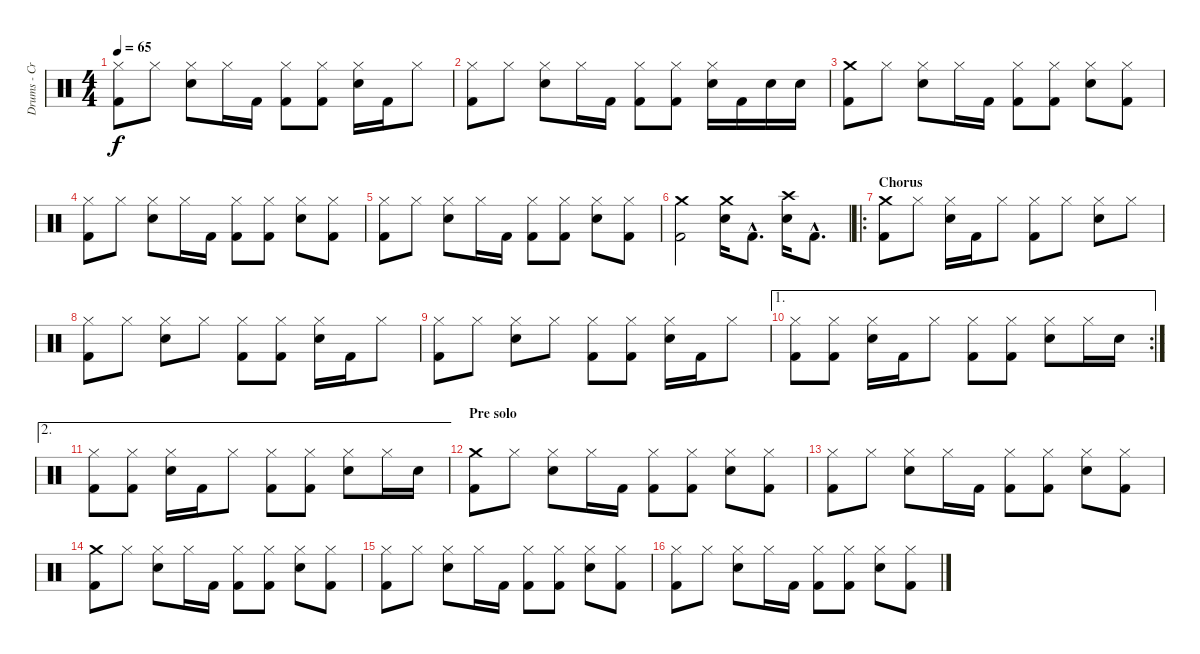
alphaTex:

\track ("Drums - Craig" "Drums - Cr") {instrument percussion}
\staff {score}
\articulation defaults
\ts (4 4)
\tempo 65
\clef neutral
\ks c
("Hi-Hat (closed)" "Kick (hit) 2").8{dy f} "Hi-Hat (closed)".8 ("Hi-Hat (closed)" "Snare (hit) 2").8 "Hi-Hat (closed)".16 "Kick (hit) 2".16 ("Hi-Hat (closed)" "Kick (hit) 2").8 ("Hi-Hat (closed)" "Kick (hit) 2").8 ("Hi-Hat (closed)" "Snare (hit) 2").16 "Kick (hit) 2".16 "Hi-Hat (closed)".8 |
("Hi-Hat (closed)" "Kick (hit) 2").8 "Hi-Hat (closed)".8 ("Hi-Hat (closed)" "Snare (hit) 2").8 "Hi-Hat (closed)".16 "Kick (hit) 2".16 ("Hi-Hat (closed)" "Kick (hit) 2").8 ("Hi-Hat (closed)" "Kick (hit) 2").8 ("Hi-Hat (closed)" "Snare (hit) 2").16 "Kick (hit) 2".16 "Snare (hit) 2".16 "Snare (hit) 2".16 |
("Crash medium (hit)" "Kick (hit) 2").8 "Hi-Hat (closed)".8 ("Hi-Hat (closed)" "Snare (hit) 2").8 "Hi-Hat (closed)".16 "Kick (hit) 2".16 ("Hi-Hat (closed)" "Kick (hit) 2").8 ("Hi-Hat (closed)" "Kick (hit) 2").8 ("Hi-Hat (closed)" "Snare (hit) 2").8 ("Hi-Hat (closed)" "Kick (hit) 2").8 |
("Hi-Hat (closed)" "Kick (hit) 2").8 "Hi-Hat (closed)".8 ("Hi-Hat (closed)" "Snare (hit) 2").8 "Hi-Hat (closed)".16 "Kick (hit) 2".16 ("Hi-Hat (closed)" "Kick (hit) 2").8 ("Hi-Hat (closed)" "Kick (hit) 2").8 ("Hi-Hat (closed)" "Snare (hit) 2").8 ("Hi-Hat (closed)" "Kick (hit) 2").8 |
("Hi-Hat (closed)" "Kick (hit) 2").8 "Hi-Hat (closed)".8 ("Hi-Hat (closed)" "Snare (hit) 2").8 "Hi-Hat (closed)".16 "Kick (hit) 2".16 ("Hi-Hat (closed)" "Kick (hit) 2").8 ("Hi-Hat (closed)" "Kick (hit) 2").8 ("Hi-Hat (closed)" "Snare (hit) 2").8 ("Hi-Hat (closed)" "Kick (hit) 2").8 |
("Crash medium (hit)" "Kick (hit) 2").2 ("Crash medium (hit)" "Snare (hit) 2").16 "Kick (hit) 2"{hac}.8{d} ("Crash high (hit)" "Snare (hit) 2").16 "Kick (hit) 2"{hac}.8{d} |
\ro
\section ("" "Chorus")
("Crash medium (hit)" "Kick (hit) 2").8 "Hi-Hat (closed)".8 ("Hi-Hat (closed)" "Snare (hit) 2").16 "Kick (hit) 2".16 "Hi-Hat (closed)".8 ("Hi-Hat (closed)" "Kick (hit) 2").8 "Hi-Hat (closed)".8 ("Hi-Hat (closed)" "Snare (hit) 2").8 "Hi-Hat (closed)".8 |
("Hi-Hat (closed)" "Kick (hit) 2").8 "Hi-Hat (closed)".8 ("Hi-Hat (closed)" "Snare (hit) 2").8 "Hi-Hat (closed)".8 ("Hi-Hat (closed)" "Kick (hit) 2").8 ("Hi-Hat (closed)" "Kick (hit) 2").8 ("Hi-Hat (closed)" "Snare (hit) 2").16 "Kick (hit) 2".16 "Hi-Hat (closed)".8 |
("Hi-Hat (closed)" "Kick (hit) 2").8 "Hi-Hat (closed)".8 ("Hi-Hat (closed)" "Snare (hit) 2").8 "Hi-Hat (closed)".8 ("Hi-Hat (closed)" "Kick (hit) 2").8 ("Hi-Hat (closed)" "Kick (hit) 2").8 ("Hi-Hat (closed)" "Snare (hit) 2").16 "Kick (hit) 2".16 "Hi-Hat (closed)".8 |
\ae 1
\rc 2
("Hi-Hat (closed)" "Kick (hit) 2").8 ("Hi-Hat (closed)" "Kick (hit) 2").8 ("Hi-Hat (closed)" "Snare (hit) 2").16 "Kick (hit) 2".16 "Hi-Hat (closed)".8 ("Hi-Hat (closed)" "Kick (hit) 2").8 ("Hi-Hat (closed)" "Kick (hit) 2").8 ("Hi-Hat (closed)" "Snare (hit) 2").8 "Hi-Hat (closed)".16 "Snare (hit) 2".16 |
\ae 2
("Hi-Hat (closed)" "Kick (hit) 2").8 ("Hi-Hat (closed)" "Kick (hit) 2").8 ("Hi-Hat (closed)" "Snare (hit) 2").16 "Kick (hit) 2".16 "Hi-Hat (closed)".8 ("Hi-Hat (closed)" "Kick (hit) 2").8 ("Hi-Hat (closed)" "Kick (hit) 2").8 ("Hi-Hat (closed)" "Snare (hit) 2").8 "Hi-Hat (closed)".16 "Snare (hit) 2".16 |
\section ("" "Pre solo")
("Crash medium (hit)" "Kick (hit) 2").8 "Hi-Hat (closed)".8 ("Hi-Hat (closed)" "Snare (hit) 2").8 "Hi-Hat (closed)".16 "Kick (hit) 2".16 ("Hi-Hat (closed)" "Kick (hit) 2").8 ("Hi-Hat (closed)" "Kick (hit) 2").8 ("Hi-Hat (closed)" "Snare (hit) 2").8 ("Hi-Hat (closed)" "Kick (hit) 2").8 |
("Hi-Hat (closed)" "Kick (hit) 2").8 "Hi-Hat (closed)".8 ("Hi-Hat (closed)" "Snare (hit) 2").8 "Hi-Hat (closed)".16 "Kick (hit) 2".16 ("Hi-Hat (closed)" "Kick (hit) 2").8 ("Hi-Hat (closed)" "Kick (hit) 2").8 ("Hi-Hat (closed)" "Snare (hit) 2").8 ("Hi-Hat (closed)" "Kick (hit) 2").8 |
("Crash medium (hit)" "Kick (hit) 2").8 "Hi-Hat (closed)".8 ("Hi-Hat (closed)" "Snare (hit) 2").8 "Hi-Hat (closed)".16 "Kick (hit) 2".16 ("Hi-Hat (closed)" "Kick (hit) 2").8 ("Hi-Hat (closed)" "Kick (hit) 2").8 ("Hi-Hat (closed)" "Snare (hit) 2").8 ("Hi-Hat (closed)" "Kick (hit) 2").8 |
("Hi-Hat (closed)" "Kick (hit) 2").8 "Hi-Hat (closed)".8 ("Hi-Hat (closed)" "Snare (hit) 2").8 "Hi-Hat (closed)".16 "Kick (hit) 2".16 ("Hi-Hat (closed)" "Kick (hit) 2").8 ("Hi-Hat (closed)" "Kick (hit) 2").8 ("Hi-Hat (closed)" "Snare (hit) 2").8 ("Hi-Hat (closed)" "Kick (hit) 2").8 |
("Hi-Hat (closed)" "Kick (hit) 2").8 "Hi-Hat (closed)".8 ("Hi-Hat (closed)" "Snare (hit) 2").8 "Hi-Hat (closed)".16 "Kick (hit) 2".16 ("Hi-Hat (closed)" "Kick (hit) 2").8 ("Hi-Hat (closed)" "Kick (hit) 2").8 ("Hi-Hat (closed)" "Snare (hit) 2").8 ("Hi-Hat (closed)" "Kick (hit) 2").8
